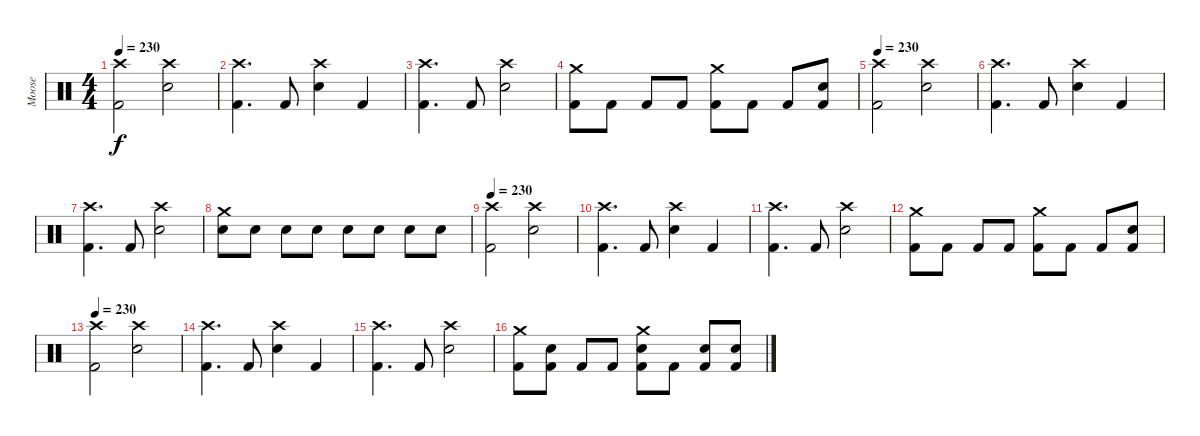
\track ("Moose" "Moose") {instrument percussion}
\staff {score}
\articulation defaults
\ts (4 4)
\tempo 230
\clef neutral
\ks c
("Crash high (hit)" "Kick (hit) 2").2{dy f} ("Crash high (hit)" "Snare (hit) 2").2 |
("Crash high (hit)" "Kick (hit) 2").4{d} "Kick (hit) 2".8 ("Crash high (hit)" "Snare (hit) 2").4 "Kick (hit) 2".4 |
("Crash high (hit)" "Kick (hit) 2").4{d} "Kick (hit) 2".8 ("Crash high (hit)" "Snare (hit) 2").2 |
("Crash medium (hit)" "Kick (hit) 2").8 "Kick (hit) 2".8 "Kick (hit) 2".8 "Kick (hit) 2".8 ("Crash medium (hit)" "Kick (hit) 2").8 "Kick (hit) 2".8 "Kick (hit) 2".8 ("Snare (hit) 2" "Kick (hit) 2").8 |
\tempo 230
("Crash high (hit)" "Kick (hit) 2").2 ("Crash high (hit)" "Snare (hit) 2").2 |
("Crash high (hit)" "Kick (hit) 2").4{d} "Kick (hit) 2".8 ("Crash high (hit)" "Snare (hit) 2").4 "Kick (hit) 2".4 |
("Crash high (hit)" "Kick (hit) 2").4{d} "Kick (hit) 2".8 ("Crash high (hit)" "Snare (hit) 2").2 |
("Crash medium (hit)" "Snare (hit) 2").8 "Snare (hit) 2".8 "Snare (hit) 2".8 "Snare (hit) 2".8 "Snare (hit) 2".8 "Snare (hit) 2".8 "Snare (hit) 2".8 "Snare (hit) 2".8 |
\tempo 230
("Crash high (hit)" "Kick (hit) 2").2 ("Crash high (hit)" "Snare (hit) 2").2 |
("Crash high (hit)" "Kick (hit) 2").4{d} "Kick (hit) 2".8 ("Crash high (hit)" "Snare (hit) 2").4 "Kick (hit) 2".4 |
("Crash high (hit)" "Kick (hit) 2").4{d} "Kick (hit) 2".8 ("Crash high (hit)" "Snare (hit) 2").2 |
("Crash medium (hit)" "Kick (hit) 2").8 "Kick (hit) 2".8 "Kick (hit) 2".8 "Kick (hit) 2".8 ("Crash medium (hit)" "Kick (hit) 2").8 "Kick (hit) 2".8 "Kick (hit) 2".8 ("Snare (hit) 2" "Kick (hit) 2").8 |
\tempo 230
("Crash high (hit)" "Kick (hit) 2").2 ("Crash high (hit)" "Snare (hit) 2").2 |
("Crash high (hit)" "Kick (hit) 2").4{d} "Kick (hit) 2".8 ("Crash high (hit)" "Snare (hit) 2").4 "Kick (hit) 2".4 |
("Crash high (hit)" "Kick (hit) 2").4{d} "Kick (hit) 2".8 ("Crash high (hit)" "Snare (hit) 2").2 |
("Crash medium (hit)" "Kick (hit) 2").8 ("Snare (hit) 2" "Kick (hit) 2").8 "Kick (hit) 2".8 "Kick (hit) 2".8 ("Crash medium (hit)" "Snare (hit) 2" "Kick (hit) 2").8 "Kick (hit) 2".8 ("Snare (hit) 2" "Kick (hit) 2").8 ("Snare (hit) 2" "Kick (hit) 2").8
